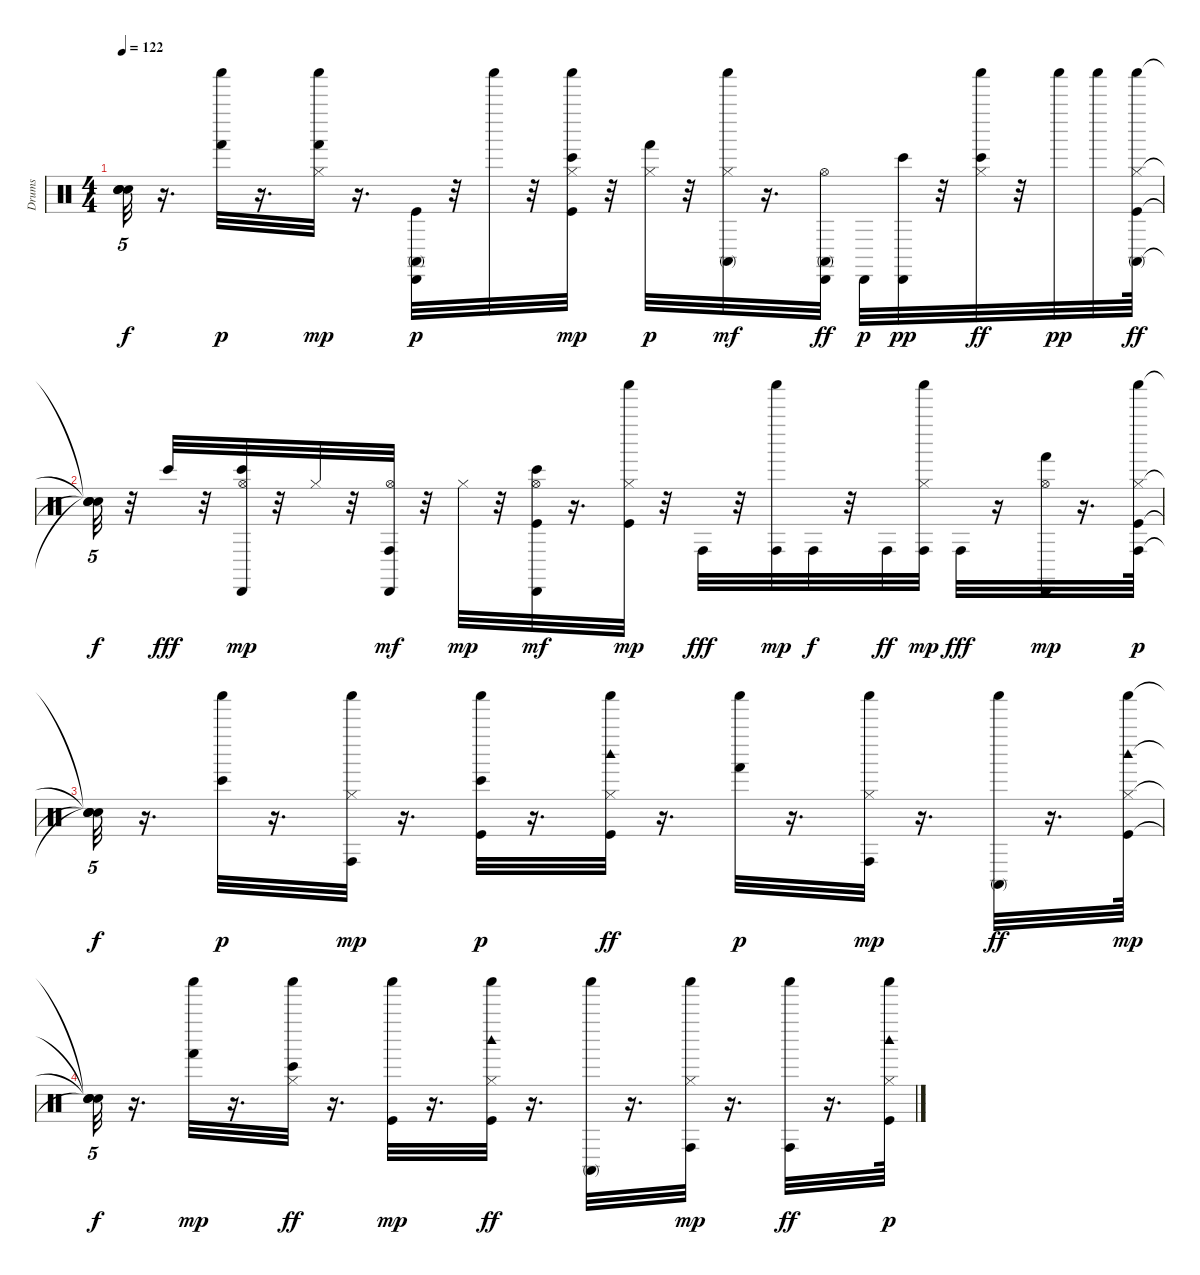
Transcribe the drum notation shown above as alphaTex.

\track ("Drums" "Drums") {instrument percussion}
\staff {score}
\articulation defaults
\ts (4 4)
\tempo 122
\clef neutral
\ks c
("Snare (hit)"{t} "Snare (hit)"{t} "Snare (hit)"{t} "Snare (hit)"{t}).32{tu (5 4) dy f} r.16{d} ("Hand (hit)" "Shaker (hit)").32{dy p} r.16{d} ("Shaker (hit)" "Hi-Hat (closed)" "Hand (hit)").32{dy mp} r.16{d} ("Kick (hit)" "Conga high (mute)" "Cabasa (hit)").32{dy p} r.32 "Shaker (hit)".32 r.32 ("Shaker (hit)" "Kick (hit)" "Hi-Hat (closed)" "Bongo High (hit)").32{dy mp} r.32 ("Hi-Hat (closed)" "Hand (hit)").32{dy p} r.32 ("Shaker (hit)" "Hi-Hat (closed)" "Conga high (mute)").32{dy mf} r.16{d} ("Hi-Hat (open)" "Conga high (mute)" "Cabasa (hit)").32{dy ff} "Cabasa (hit)".32{dy p} ("Bongo High (hit)" "Cabasa (hit)").32{dy pp} r.32 ("Shaker (hit)" "Hi-Hat (closed)" "Bongo High (hit)").32{dy ff} r.32 "Shaker (hit)".32{dy pp} "Shaker (hit)".32 ("Shaker (hit)" "Kick (hit)" "Hi-Hat (closed)" "Conga high (mute)").64{dy ff} |
("Snare (hit)"{t} "Snare (hit)"{t} "Snare (hit)"{t} "Snare (hit)"{t}).32{tu (5 4) dy f} r.32 "Bongo High (hit)".32{dy fff} r.32 ("Hi-Hat (open)" "Bongo High (hit)" "Cabasa (hit)").32{dy mp} r.32 "Hi-Hat (closed)".32 r.32 ("Cabasa (hit)" "Hi-Hat (open)" "Conga high (hit)").32{dy mf} r.32 "Hi-Hat (closed)".32{dy mp} r.32 ("Bongo High (hit)" "Cabasa (hit)" "Kick (hit)" "Hi-Hat (open)").32{dy mf} r.16{d} ("Shaker (hit)" "Kick (hit)" "Hi-Hat (closed)").32{dy mp} r.32 "Conga high (hit)".32{dy fff} r.32 ("Conga high (hit)" "Shaker (hit)").32{dy mp} "Conga high (hit)".32{dy f} r.32 "Conga high (hit)".32{dy ff} ("Conga high (hit)" "Hi-Hat (closed)" "Shaker (hit)").32{dy mp} "Conga high (hit)".32{dy fff} r.16 ("Hi-Hat (open)" "Hand (hit)" "Cabasa (hit)").32{dy mp} r.16{d} ("Kick (hit)" "Hi-Hat (closed)" "Conga high (hit)" "Shaker (hit)").64{dy p} |
("Snare (hit)"{t} "Snare (hit)"{t} "Snare (hit)"{t} "Snare (hit)"{t}).32{tu (5 4) dy f} r.16{d} ("Bongo High (hit)" "Shaker (hit)").32{dy p} r.16{d} ("Shaker (hit)" "Hi-Hat (closed)" "Conga high (hit)").32{dy mp} r.16{d} ("Bongo High (hit)" "Shaker (hit)" "Kick (hit)").32{dy p} r.16{d} ("Shaker (hit)" "Kick (hit)" "Hi-Hat (closed)" "Woodblock high (hit)").32{dy ff} r.16{d} ("Hand (hit)" "Shaker (hit)").32{dy p} r.16{d} ("Shaker (hit)" "Hi-Hat (closed)" "Conga high (hit)").32{dy mp} r.16{d} ("Shaker (hit)" "Conga high (mute)").32{dy ff} r.16{d} ("Shaker (hit)" "Kick (hit)" "Hi-Hat (closed)" "Woodblock high (hit)").64{dy mp} |
("Snare (hit)"{t} "Snare (hit)"{t} "Snare (hit)"{t} "Snare (hit)"{t}).32{tu (5 4) dy f} r.16{d} ("Hand (hit)" "Shaker (hit)").32{dy mp} r.16{d} ("Shaker (hit)" "Hi-Hat (closed)" "Bongo High (hit)").32{dy ff} r.16{d} ("Shaker (hit)" "Kick (hit)").32{dy mp} r.16{d} ("Shaker (hit)" "Kick (hit)" "Hi-Hat (closed)" "Woodblock high (hit)").32{dy ff} r.16{d} ("Shaker (hit)" "Conga high (mute)").32 r.16{d} ("Hi-Hat (closed)" "Conga high (hit)" "Shaker (hit)").32{dy mp} r.16{d} ("Shaker (hit)" "Conga high (hit)").32{dy ff} r.16{d} ("Woodblock high (hit)" "Kick (hit)" "Hi-Hat (closed)" "Shaker (hit)").64{dy p}
